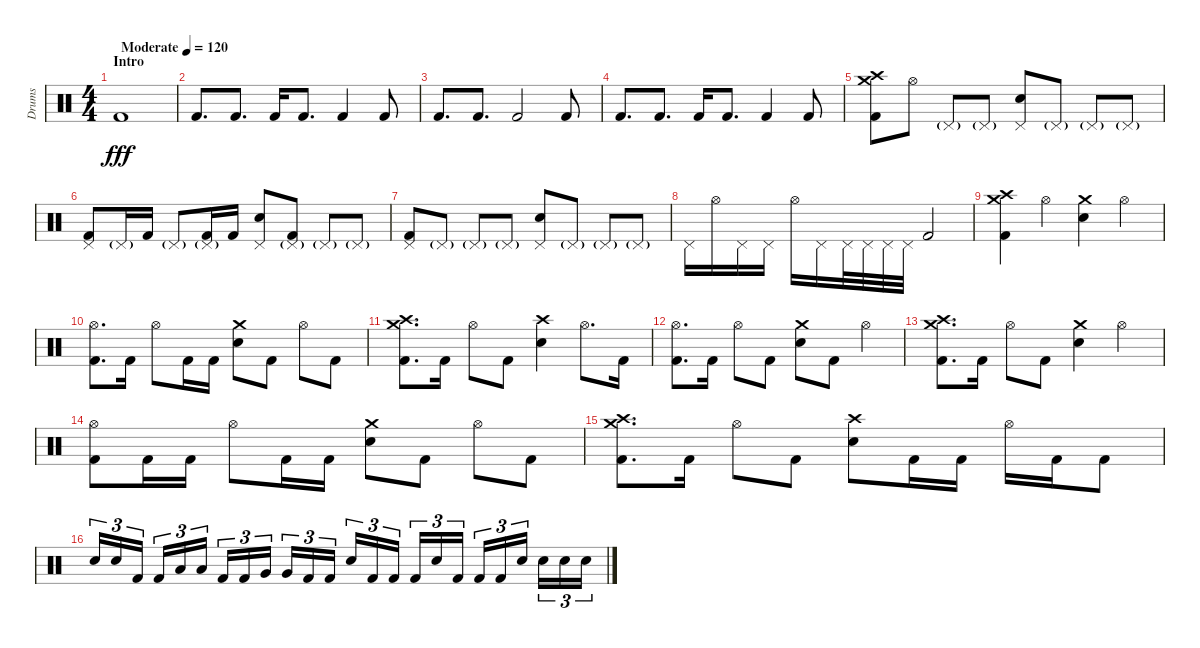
\track ("Drums" "Drums") {instrument percussion}
\staff {score}
\articulation defaults
\ts (4 4)
\section ("" "Intro")
\tempo (120 "Moderate")
\clef neutral
\ks c "Kick (hit) 2".1{dy fff volume 7}
|
"Kick (hit) 2".8{d} "Kick (hit) 2".8{d} "Kick (hit) 2".16 "Kick (hit) 2".8{d} "Kick (hit) 2".4 "Kick (hit) 2".8 |
"Kick (hit) 2".8{d} "Kick (hit) 2".8{d} "Kick (hit) 2".2 "Kick (hit) 2".8 |
"Kick (hit) 2".8{d} "Kick (hit) 2".8{d} "Kick (hit) 2".16 "Kick (hit) 2".8{d} "Kick (hit) 2".4 "Kick (hit) 2".8 |
("Crash medium (hit)" "Crash high (hit)" "Kick (hit) 2").8 "Hi-Hat (open)".8 "Pedal Hi-Hat (hit)"{g}.8 "Pedal Hi-Hat (hit)"{g}.8 ("Pedal Hi-Hat (hit)" "Snare (hit) 2").8 "Pedal Hi-Hat (hit)"{g}.8 "Pedal Hi-Hat (hit)"{g}.8 "Pedal Hi-Hat (hit)"{g}.8 |
("Pedal Hi-Hat (hit)" "Kick (hit) 2").8 "Pedal Hi-Hat (hit)"{g}.16 "Kick (hit) 2".16 "Pedal Hi-Hat (hit)"{g}.8 ("Pedal Hi-Hat (hit)"{g} "Kick (hit) 2").16 "Kick (hit) 2".16 ("Pedal Hi-Hat (hit)" "Snare (hit) 2").8 ("Pedal Hi-Hat (hit)"{g} "Kick (hit) 2").8 "Pedal Hi-Hat (hit)"{g}.8 "Pedal Hi-Hat (hit)"{g}.8 |
("Pedal Hi-Hat (hit)" "Kick (hit) 2").8 "Pedal Hi-Hat (hit)"{g}.8 "Pedal Hi-Hat (hit)"{g}.8 "Pedal Hi-Hat (hit)"{g}.8 ("Pedal Hi-Hat (hit)" "Snare (hit) 2").8 "Pedal Hi-Hat (hit)"{g}.8 "Pedal Hi-Hat (hit)"{g}.8 "Pedal Hi-Hat (hit)"{g}.8 |
"Pedal Hi-Hat (hit)".16 "Hi-Hat (open)".16 "Pedal Hi-Hat (hit)".16 "Pedal Hi-Hat (hit)".16 "Hi-Hat (open)".16 "Pedal Hi-Hat (hit)".16 "Pedal Hi-Hat (hit)".32 "Pedal Hi-Hat (hit)".32 "Pedal Hi-Hat (hit)".32 "Pedal Hi-Hat (hit)".32 "Kick (hit) 2".2 |
("Crash medium (hit)" "Crash high (hit)" "Kick (hit) 2").4{volume 16} "Hi-Hat (open)".4 ("Crash medium (hit)" "Electric Snare (hit)").4 "Hi-Hat (open)".4 |
("Hi-Hat (open)" "Kick (hit) 2").8{d} "Kick (hit) 2".16 "Hi-Hat (open)".8 "Kick (hit) 2".16 "Kick (hit) 2".16 ("Crash medium (hit)" "Electric Snare (hit)").8 "Kick (hit) 2".8 "Hi-Hat (open)".8 "Kick (hit) 2".8 |
("Crash medium (hit)" "Crash high (hit)" "Kick (hit) 2").8{d} "Kick (hit) 2".16 "Hi-Hat (open)".8 "Kick (hit) 2".8 ("Crash high (hit)" "Electric Snare (hit)").4 "Hi-Hat (open)".8{d} "Kick (hit) 2".16 |
("Hi-Hat (open)" "Kick (hit) 2").8{d} "Kick (hit) 2".16 "Hi-Hat (open)".8 "Kick (hit) 2".8 ("Crash medium (hit)" "Electric Snare (hit)").8 "Kick (hit) 2".8 "Hi-Hat (open)".4 |
("Crash medium (hit)" "Crash high (hit)" "Kick (hit) 2").8{d} "Kick (hit) 2".16 "Hi-Hat (open)".8 "Kick (hit) 2".8 ("Crash medium (hit)" "Electric Snare (hit)").4 "Hi-Hat (open)".4 |
("Hi-Hat (open)" "Kick (hit) 2").8 "Kick (hit) 2".16 "Kick (hit) 2".16 "Hi-Hat (open)".8 "Kick (hit) 2".16 "Kick (hit) 2".16 ("Crash medium (hit)" "Electric Snare (hit)").8 "Kick (hit) 2".8 "Hi-Hat (open)".8 "Kick (hit) 2".8 |
("Crash medium (hit)" "Crash high (hit)" "Kick (hit) 2").8{d} "Kick (hit) 2".16 "Hi-Hat (open)".8 "Kick (hit) 2".8 ("Crash high (hit)" "Electric Snare (hit)").8 "Kick (hit) 2".16 "Kick (hit) 2".16 "Hi-Hat (open)".16 "Kick (hit) 2".16 "Kick (hit) 2".8 |
"Electric Snare (hit)".16{tu (3 2)} "Electric Snare (hit)".16{tu (3 2)} "Kick (hit) 2".16{tu (3 2) beam splitsecondary} "Kick (hit) 2".16{tu (3 2)} "Low Tom (hit)".16{tu (3 2)} "Low Tom (hit)".16{tu (3 2)} "Kick (hit) 2".16{tu (3 2)} "Kick (hit) 2".16{tu (3 2)} "Very Low Tom (hit)".16{tu (3 2) beam splitsecondary} "Very Low Tom (hit)".16{tu (3 2)} "Kick (hit) 2".16{tu (3 2)} "Kick (hit) 2".16{tu (3 2)} "Electric Snare (hit)".16{tu (3 2)} "Kick (hit) 2".16{tu (3 2)} "Kick (hit) 2".16{tu (3 2) beam splitsecondary} "Kick (hit) 2".16{tu (3 2)} "Electric Snare (hit)".16{tu (3 2)} "Kick (hit) 2".16{tu (3 2)} "Kick (hit) 2".16{tu (3 2)} "Kick (hit) 2".16{tu (3 2)} "Electric Snare (hit)".16{tu (3 2) beam splitsecondary} "Electric Snare (hit)".16{tu (3 2)} "Electric Snare (hit)".16{tu (3 2)} "Electric Snare (hit)".16{tu (3 2)}
